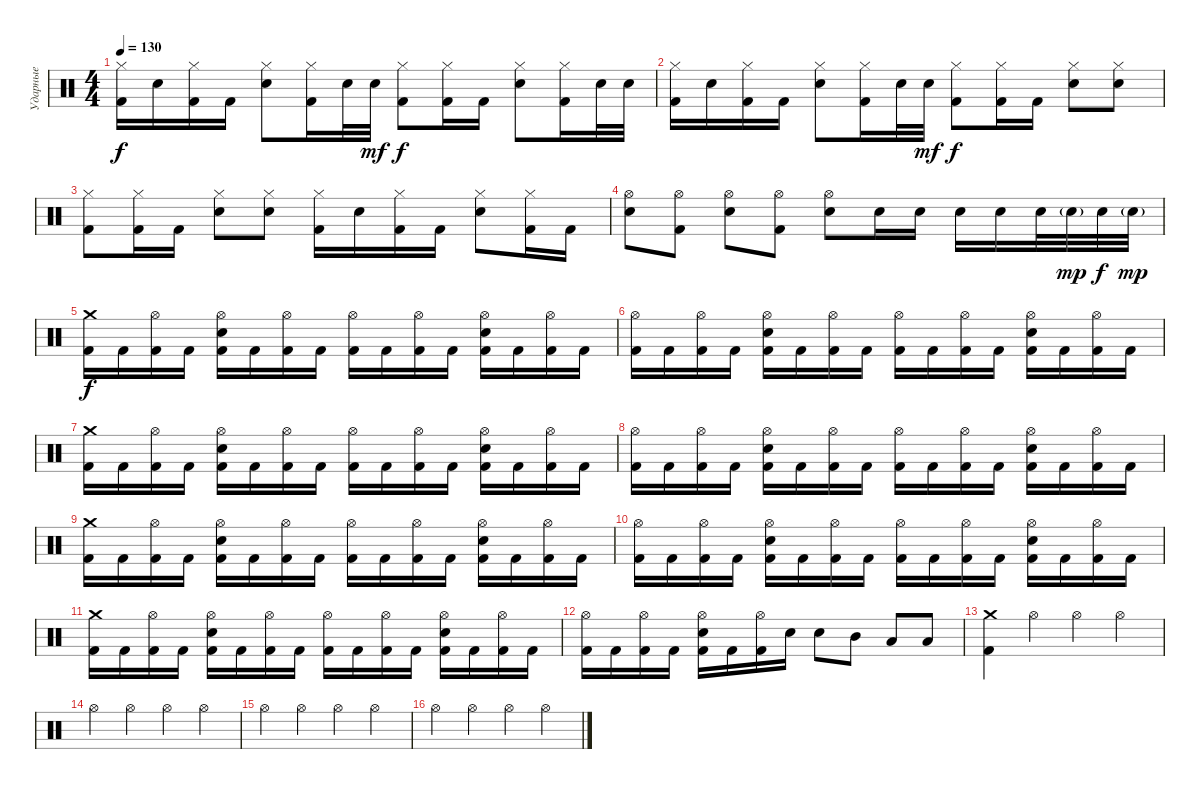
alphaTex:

\track ("Ударные" "Ударные") {instrument percussion}
\staff {score}
\articulation defaults
\ts (4 4)
\tempo 130
\clef neutral
\ks c
("Kick (hit) 2" "Hi-Hat (closed)").16{dy f} "Electric Snare (hit)".16 ("Kick (hit) 2" "Hi-Hat (closed)").16 "Kick (hit) 2".16 ("Electric Snare (hit)" "Hi-Hat (closed)").8 ("Kick (hit) 2" "Hi-Hat (closed)").16 "Electric Snare (hit)".32 "Electric Snare (hit)".32{dy mf} ("Kick (hit) 2" "Hi-Hat (closed)").8{dy f} ("Kick (hit) 2" "Hi-Hat (closed)").16 "Kick (hit) 2".16 ("Electric Snare (hit)" "Hi-Hat (closed)").8 ("Kick (hit) 2" "Hi-Hat (closed)").16 "Electric Snare (hit)".32 "Electric Snare (hit)".32 |
("Kick (hit) 2" "Hi-Hat (closed)").16 "Electric Snare (hit)".16 ("Kick (hit) 2" "Hi-Hat (closed)").16 "Kick (hit) 2".16 ("Electric Snare (hit)" "Hi-Hat (closed)").8 ("Kick (hit) 2" "Hi-Hat (closed)").16 "Electric Snare (hit)".32 "Electric Snare (hit)".32{dy mf} ("Kick (hit) 2" "Hi-Hat (closed)").8{dy f} ("Kick (hit) 2" "Hi-Hat (closed)").16 "Kick (hit) 2".16 ("Electric Snare (hit)" "Hi-Hat (closed)").8 ("Electric Snare (hit)" "Hi-Hat (closed)").8 |
("Kick (hit) 2" "Hi-Hat (closed)").8 ("Kick (hit) 2" "Hi-Hat (closed)").16 "Kick (hit) 2".16 ("Electric Snare (hit)" "Hi-Hat (closed)").8 ("Electric Snare (hit)" "Hi-Hat (closed)").8 ("Kick (hit) 2" "Hi-Hat (closed)").16 "Electric Snare (hit)".16 ("Kick (hit) 2" "Hi-Hat (closed)").16 "Kick (hit) 2".16 ("Electric Snare (hit)" "Hi-Hat (closed)").8 ("Kick (hit) 2" "Hi-Hat (closed)").16 "Kick (hit) 2".16 |
("Electric Snare (hit)" "Hi-Hat (open)").8 ("Kick (hit) 2" "Hi-Hat (open)").8 ("Electric Snare (hit)" "Hi-Hat (open)").8 ("Kick (hit) 2" "Hi-Hat (open)").8 ("Electric Snare (hit)" "Hi-Hat (open)").8 "Electric Snare (hit)".16 "Electric Snare (hit)".16 "Electric Snare (hit)".16 "Electric Snare (hit)".16 "Electric Snare (hit)".32 "Electric Snare (hit)"{g}.32{dy mp} "Electric Snare (hit)".32{dy f} "Electric Snare (hit)"{g}.32{dy mp} |
("Kick (hit) 2" "Crash medium (hit)").16{dy f} "Kick (hit) 2".16 ("Kick (hit) 2" "Hi-Hat (open)").16 "Kick (hit) 2".16 ("Kick (hit) 2" "Electric Snare (hit)" "Hi-Hat (open)").16 "Kick (hit) 2".16 ("Kick (hit) 2" "Hi-Hat (open)").16 "Kick (hit) 2".16 ("Kick (hit) 2" "Hi-Hat (open)").16 "Kick (hit) 2".16 ("Kick (hit) 2" "Hi-Hat (open)").16 "Kick (hit) 2".16 ("Kick (hit) 2" "Electric Snare (hit)" "Hi-Hat (open)").16 "Kick (hit) 2".16 ("Kick (hit) 2" "Hi-Hat (open)").16 "Kick (hit) 2".16 |
("Kick (hit) 2" "Hi-Hat (open)").16 "Kick (hit) 2".16 ("Kick (hit) 2" "Hi-Hat (open)").16 "Kick (hit) 2".16 ("Kick (hit) 2" "Electric Snare (hit)" "Hi-Hat (open)").16 "Kick (hit) 2".16 ("Kick (hit) 2" "Hi-Hat (open)").16 "Kick (hit) 2".16 ("Kick (hit) 2" "Hi-Hat (open)").16 "Kick (hit) 2".16 ("Kick (hit) 2" "Hi-Hat (open)").16 "Kick (hit) 2".16 ("Kick (hit) 2" "Electric Snare (hit)" "Hi-Hat (open)").16 "Kick (hit) 2".16 ("Kick (hit) 2" "Hi-Hat (open)").16 "Kick (hit) 2".16 |
("Kick (hit) 2" "Crash medium (hit)").16 "Kick (hit) 2".16 ("Kick (hit) 2" "Hi-Hat (open)").16 "Kick (hit) 2".16 ("Kick (hit) 2" "Electric Snare (hit)" "Hi-Hat (open)").16 "Kick (hit) 2".16 ("Kick (hit) 2" "Hi-Hat (open)").16 "Kick (hit) 2".16 ("Kick (hit) 2" "Hi-Hat (open)").16 "Kick (hit) 2".16 ("Kick (hit) 2" "Hi-Hat (open)").16 "Kick (hit) 2".16 ("Kick (hit) 2" "Electric Snare (hit)" "Hi-Hat (open)").16 "Kick (hit) 2".16 ("Kick (hit) 2" "Hi-Hat (open)").16 "Kick (hit) 2".16 |
("Kick (hit) 2" "Hi-Hat (open)").16 "Kick (hit) 2".16 ("Kick (hit) 2" "Hi-Hat (open)").16 "Kick (hit) 2".16 ("Kick (hit) 2" "Electric Snare (hit)" "Hi-Hat (open)").16 "Kick (hit) 2".16 ("Kick (hit) 2" "Hi-Hat (open)").16 "Kick (hit) 2".16 ("Kick (hit) 2" "Hi-Hat (open)").16 "Kick (hit) 2".16 ("Kick (hit) 2" "Hi-Hat (open)").16 "Kick (hit) 2".16 ("Kick (hit) 2" "Electric Snare (hit)" "Hi-Hat (open)").16 "Kick (hit) 2".16 ("Kick (hit) 2" "Hi-Hat (open)").16 "Kick (hit) 2".16 |
("Kick (hit) 2" "Crash medium (hit)").16 "Kick (hit) 2".16 ("Kick (hit) 2" "Hi-Hat (open)").16 "Kick (hit) 2".16 ("Kick (hit) 2" "Electric Snare (hit)" "Hi-Hat (open)").16 "Kick (hit) 2".16 ("Kick (hit) 2" "Hi-Hat (open)").16 "Kick (hit) 2".16 ("Kick (hit) 2" "Hi-Hat (open)").16 "Kick (hit) 2".16 ("Kick (hit) 2" "Hi-Hat (open)").16 "Kick (hit) 2".16 ("Kick (hit) 2" "Electric Snare (hit)" "Hi-Hat (open)").16 "Kick (hit) 2".16 ("Kick (hit) 2" "Hi-Hat (open)").16 "Kick (hit) 2".16 |
("Kick (hit) 2" "Hi-Hat (open)").16 "Kick (hit) 2".16 ("Kick (hit) 2" "Hi-Hat (open)").16 "Kick (hit) 2".16 ("Kick (hit) 2" "Electric Snare (hit)" "Hi-Hat (open)").16 "Kick (hit) 2".16 ("Kick (hit) 2" "Hi-Hat (open)").16 "Kick (hit) 2".16 ("Kick (hit) 2" "Hi-Hat (open)").16 "Kick (hit) 2".16 ("Kick (hit) 2" "Hi-Hat (open)").16 "Kick (hit) 2".16 ("Kick (hit) 2" "Electric Snare (hit)" "Hi-Hat (open)").16 "Kick (hit) 2".16 ("Kick (hit) 2" "Hi-Hat (open)").16 "Kick (hit) 2".16 |
("Kick (hit) 2" "Crash medium (hit)").16 "Kick (hit) 2".16 ("Kick (hit) 2" "Hi-Hat (open)").16 "Kick (hit) 2".16 ("Kick (hit) 2" "Electric Snare (hit)" "Hi-Hat (open)").16 "Kick (hit) 2".16 ("Kick (hit) 2" "Hi-Hat (open)").16 "Kick (hit) 2".16 ("Kick (hit) 2" "Hi-Hat (open)").16 "Kick (hit) 2".16 ("Kick (hit) 2" "Hi-Hat (open)").16 "Kick (hit) 2".16 ("Kick (hit) 2" "Electric Snare (hit)" "Hi-Hat (open)").16 "Kick (hit) 2".16 ("Kick (hit) 2" "Hi-Hat (open)").16 "Kick (hit) 2".16 |
("Kick (hit) 2" "Hi-Hat (open)").16 "Kick (hit) 2".16 ("Kick (hit) 2" "Hi-Hat (open)").16 "Kick (hit) 2".16 ("Kick (hit) 2" "Electric Snare (hit)" "Hi-Hat (open)").16 "Kick (hit) 2".16 ("Kick (hit) 2" "Hi-Hat (open)").16 "Electric Snare (hit)".16 "Electric Snare (hit)".8 "Mid Tom (hit)".8 "Low Tom (hit)".8 "Low Floor Tom (hit)".8 |
("Kick (hit) 2" "Crash medium (hit)").4 "Hi-Hat (open)".4 "Hi-Hat (open)".4 "Hi-Hat (open)".4 |
"Hi-Hat (open)".4 "Hi-Hat (open)".4 "Hi-Hat (open)".4 "Hi-Hat (open)".4 |
"Hi-Hat (open)".4 "Hi-Hat (open)".4 "Hi-Hat (open)".4 "Hi-Hat (open)".4 |
"Hi-Hat (open)".4 "Hi-Hat (open)".4 "Hi-Hat (open)".4 "Hi-Hat (open)".4
